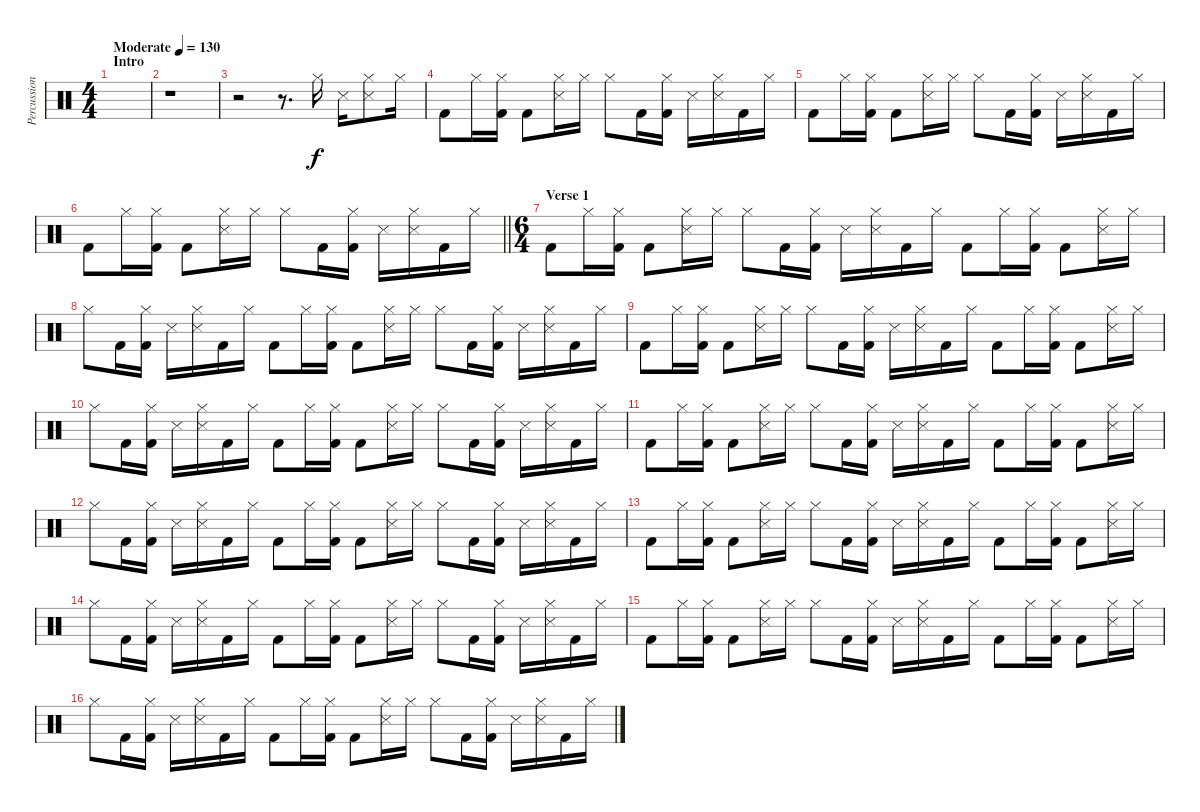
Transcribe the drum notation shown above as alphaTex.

\track ("Percussion" "Percussion") {instrument percussion}
\staff {score}
\articulation defaults
\ts (4 4)
\section ("" "Intro")
\tempo (130 "Moderate")
\clef neutral
\ks c
|
r.1 |
r.2 r.8{d volume 3} "Hi-Hat (closed)".16 "Snare (side stick) 3".16 ("Hi-Hat (closed)" "Snare (side stick) 3").8 "Hi-Hat (closed)".16 |
"Kick (hit) 2".8 "Hi-Hat (closed)".16 ("Hi-Hat (closed)" "Kick (hit) 2").16 "Kick (hit) 2".8 ("Hi-Hat (closed)" "Snare (side stick) 3").16 "Hi-Hat (closed)".16 "Hi-Hat (closed)".8 "Kick (hit) 2".16 ("Hi-Hat (closed)" "Kick (hit) 2").16 "Snare (side stick) 3".16 ("Hi-Hat (closed)" "Snare (side stick) 3").16 "Kick (hit) 2".16 "Hi-Hat (closed)".16 |
"Kick (hit) 2".8 "Hi-Hat (closed)".16 ("Hi-Hat (closed)" "Kick (hit) 2").16 "Kick (hit) 2".8 ("Hi-Hat (closed)" "Snare (side stick) 3").16 "Hi-Hat (closed)".16 "Hi-Hat (closed)".8 "Kick (hit) 2".16 ("Hi-Hat (closed)" "Kick (hit) 2").16 "Snare (side stick) 3".16 ("Hi-Hat (closed)" "Snare (side stick) 3").16 "Kick (hit) 2".16 "Hi-Hat (closed)".16 |
\barLineRight lightlight "Kick (hit) 2".8 "Hi-Hat (closed)".16
("Hi-Hat (closed)" "Kick (hit) 2").16 "Kick (hit) 2".8 ("Hi-Hat (closed)" "Snare (side stick) 3").16 "Hi-Hat (closed)".16 "Hi-Hat (closed)".8 "Kick (hit) 2".16 ("Hi-Hat (closed)" "Kick (hit) 2").16 "Snare (side stick) 3".16 ("Hi-Hat (closed)" "Snare (side stick) 3").16 "Kick (hit) 2".16 "Hi-Hat (closed)".16 |
\ts (6 4)
\section ("" "Verse 1")
"Kick (hit) 2".8 "Hi-Hat (closed)".16 ("Hi-Hat (closed)" "Kick (hit) 2").16 "Kick (hit) 2".8 ("Hi-Hat (closed)" "Snare (side stick) 3").16 "Hi-Hat (closed)".16 "Hi-Hat (closed)".8 "Kick (hit) 2".16 ("Hi-Hat (closed)" "Kick (hit) 2").16 "Snare (side stick) 3".16 ("Hi-Hat (closed)" "Snare (side stick) 3").16 "Kick (hit) 2".16 "Hi-Hat (closed)".16 "Kick (hit) 2".8 "Hi-Hat (closed)".16 ("Hi-Hat (closed)" "Kick (hit) 2").16 "Kick (hit) 2".8 ("Hi-Hat (closed)" "Snare (side stick) 3").16 "Hi-Hat (closed)".16 |
"Hi-Hat (closed)".8 "Kick (hit) 2".16 ("Hi-Hat (closed)" "Kick (hit) 2").16 "Snare (side stick) 3".16 ("Hi-Hat (closed)" "Snare (side stick) 3").16 "Kick (hit) 2".16 "Hi-Hat (closed)".16 "Kick (hit) 2".8 "Hi-Hat (closed)".16 ("Hi-Hat (closed)" "Kick (hit) 2").16 "Kick (hit) 2".8 ("Hi-Hat (closed)" "Snare (side stick) 3").16 "Hi-Hat (closed)".16 "Hi-Hat (closed)".8 "Kick (hit) 2".16 ("Hi-Hat (closed)" "Kick (hit) 2").16 "Snare (side stick) 3".16 ("Hi-Hat (closed)" "Snare (side stick) 3").16 "Kick (hit) 2".16 "Hi-Hat (closed)".16 |
"Kick (hit) 2".8 "Hi-Hat (closed)".16 ("Hi-Hat (closed)" "Kick (hit) 2").16 "Kick (hit) 2".8 ("Hi-Hat (closed)" "Snare (side stick) 3").16 "Hi-Hat (closed)".16 "Hi-Hat (closed)".8 "Kick (hit) 2".16 ("Hi-Hat (closed)" "Kick (hit) 2").16 "Snare (side stick) 3".16 ("Hi-Hat (closed)" "Snare (side stick) 3").16 "Kick (hit) 2".16 "Hi-Hat (closed)".16 "Kick (hit) 2".8 "Hi-Hat (closed)".16 ("Hi-Hat (closed)" "Kick (hit) 2").16 "Kick (hit) 2".8 ("Hi-Hat (closed)" "Snare (side stick) 3").16 "Hi-Hat (closed)".16 |
"Hi-Hat (closed)".8 "Kick (hit) 2".16 ("Hi-Hat (closed)" "Kick (hit) 2").16 "Snare (side stick) 3".16 ("Hi-Hat (closed)" "Snare (side stick) 3").16 "Kick (hit) 2".16 "Hi-Hat (closed)".16 "Kick (hit) 2".8 "Hi-Hat (closed)".16 ("Hi-Hat (closed)" "Kick (hit) 2").16 "Kick (hit) 2".8 ("Hi-Hat (closed)" "Snare (side stick) 3").16 "Hi-Hat (closed)".16 "Hi-Hat (closed)".8 "Kick (hit) 2".16 ("Hi-Hat (closed)" "Kick (hit) 2").16 "Snare (side stick) 3".16 ("Hi-Hat (closed)" "Snare (side stick) 3").16 "Kick (hit) 2".16 "Hi-Hat (closed)".16 |
"Kick (hit) 2".8 "Hi-Hat (closed)".16 ("Hi-Hat (closed)" "Kick (hit) 2").16 "Kick (hit) 2".8 ("Hi-Hat (closed)" "Snare (side stick) 3").16 "Hi-Hat (closed)".16 "Hi-Hat (closed)".8 "Kick (hit) 2".16 ("Hi-Hat (closed)" "Kick (hit) 2").16 "Snare (side stick) 3".16 ("Hi-Hat (closed)" "Snare (side stick) 3").16 "Kick (hit) 2".16 "Hi-Hat (closed)".16 "Kick (hit) 2".8 "Hi-Hat (closed)".16 ("Hi-Hat (closed)" "Kick (hit) 2").16 "Kick (hit) 2".8 ("Hi-Hat (closed)" "Snare (side stick) 3").16 "Hi-Hat (closed)".16 |
"Hi-Hat (closed)".8 "Kick (hit) 2".16 ("Hi-Hat (closed)" "Kick (hit) 2").16 "Snare (side stick) 3".16 ("Hi-Hat (closed)" "Snare (side stick) 3").16 "Kick (hit) 2".16 "Hi-Hat (closed)".16 "Kick (hit) 2".8 "Hi-Hat (closed)".16 ("Hi-Hat (closed)" "Kick (hit) 2").16 "Kick (hit) 2".8 ("Hi-Hat (closed)" "Snare (side stick) 3").16 "Hi-Hat (closed)".16 "Hi-Hat (closed)".8 "Kick (hit) 2".16 ("Hi-Hat (closed)" "Kick (hit) 2").16 "Snare (side stick) 3".16 ("Hi-Hat (closed)" "Snare (side stick) 3").16 "Kick (hit) 2".16 "Hi-Hat (closed)".16 |
"Kick (hit) 2".8 "Hi-Hat (closed)".16 ("Hi-Hat (closed)" "Kick (hit) 2").16 "Kick (hit) 2".8 ("Hi-Hat (closed)" "Snare (side stick) 3").16 "Hi-Hat (closed)".16 "Hi-Hat (closed)".8 "Kick (hit) 2".16 ("Hi-Hat (closed)" "Kick (hit) 2").16 "Snare (side stick) 3".16 ("Hi-Hat (closed)" "Snare (side stick) 3").16 "Kick (hit) 2".16 "Hi-Hat (closed)".16 "Kick (hit) 2".8 "Hi-Hat (closed)".16 ("Hi-Hat (closed)" "Kick (hit) 2").16 "Kick (hit) 2".8 ("Hi-Hat (closed)" "Snare (side stick) 3").16 "Hi-Hat (closed)".16 |
"Hi-Hat (closed)".8 "Kick (hit) 2".16 ("Hi-Hat (closed)" "Kick (hit) 2").16 "Snare (side stick) 3".16 ("Hi-Hat (closed)" "Snare (side stick) 3").16 "Kick (hit) 2".16 "Hi-Hat (closed)".16 "Kick (hit) 2".8 "Hi-Hat (closed)".16 ("Hi-Hat (closed)" "Kick (hit) 2").16 "Kick (hit) 2".8 ("Hi-Hat (closed)" "Snare (side stick) 3").16 "Hi-Hat (closed)".16 "Hi-Hat (closed)".8 "Kick (hit) 2".16 ("Hi-Hat (closed)" "Kick (hit) 2").16 "Snare (side stick) 3".16 ("Hi-Hat (closed)" "Snare (side stick) 3").16 "Kick (hit) 2".16 "Hi-Hat (closed)".16 |
"Kick (hit) 2".8 "Hi-Hat (closed)".16 ("Hi-Hat (closed)" "Kick (hit) 2").16 "Kick (hit) 2".8 ("Hi-Hat (closed)" "Snare (side stick) 3").16 "Hi-Hat (closed)".16 "Hi-Hat (closed)".8 "Kick (hit) 2".16 ("Hi-Hat (closed)" "Kick (hit) 2").16 "Snare (side stick) 3".16 ("Hi-Hat (closed)" "Snare (side stick) 3").16 "Kick (hit) 2".16 "Hi-Hat (closed)".16 "Kick (hit) 2".8 "Hi-Hat (closed)".16 ("Hi-Hat (closed)" "Kick (hit) 2").16 "Kick (hit) 2".8 ("Hi-Hat (closed)" "Snare (side stick) 3").16 "Hi-Hat (closed)".16 |
"Hi-Hat (closed)".8 "Kick (hit) 2".16 ("Hi-Hat (closed)" "Kick (hit) 2").16 "Snare (side stick) 3".16 ("Hi-Hat (closed)" "Snare (side stick) 3").16 "Kick (hit) 2".16 "Hi-Hat (closed)".16 "Kick (hit) 2".8 "Hi-Hat (closed)".16 ("Hi-Hat (closed)" "Kick (hit) 2").16 "Kick (hit) 2".8 ("Hi-Hat (closed)" "Snare (side stick) 3").16 "Hi-Hat (closed)".16 "Hi-Hat (closed)".8 "Kick (hit) 2".16 ("Hi-Hat (closed)" "Kick (hit) 2").16 "Snare (side stick) 3".16 ("Hi-Hat (closed)" "Snare (side stick) 3").16 "Kick (hit) 2".16 "Hi-Hat (closed)".16
